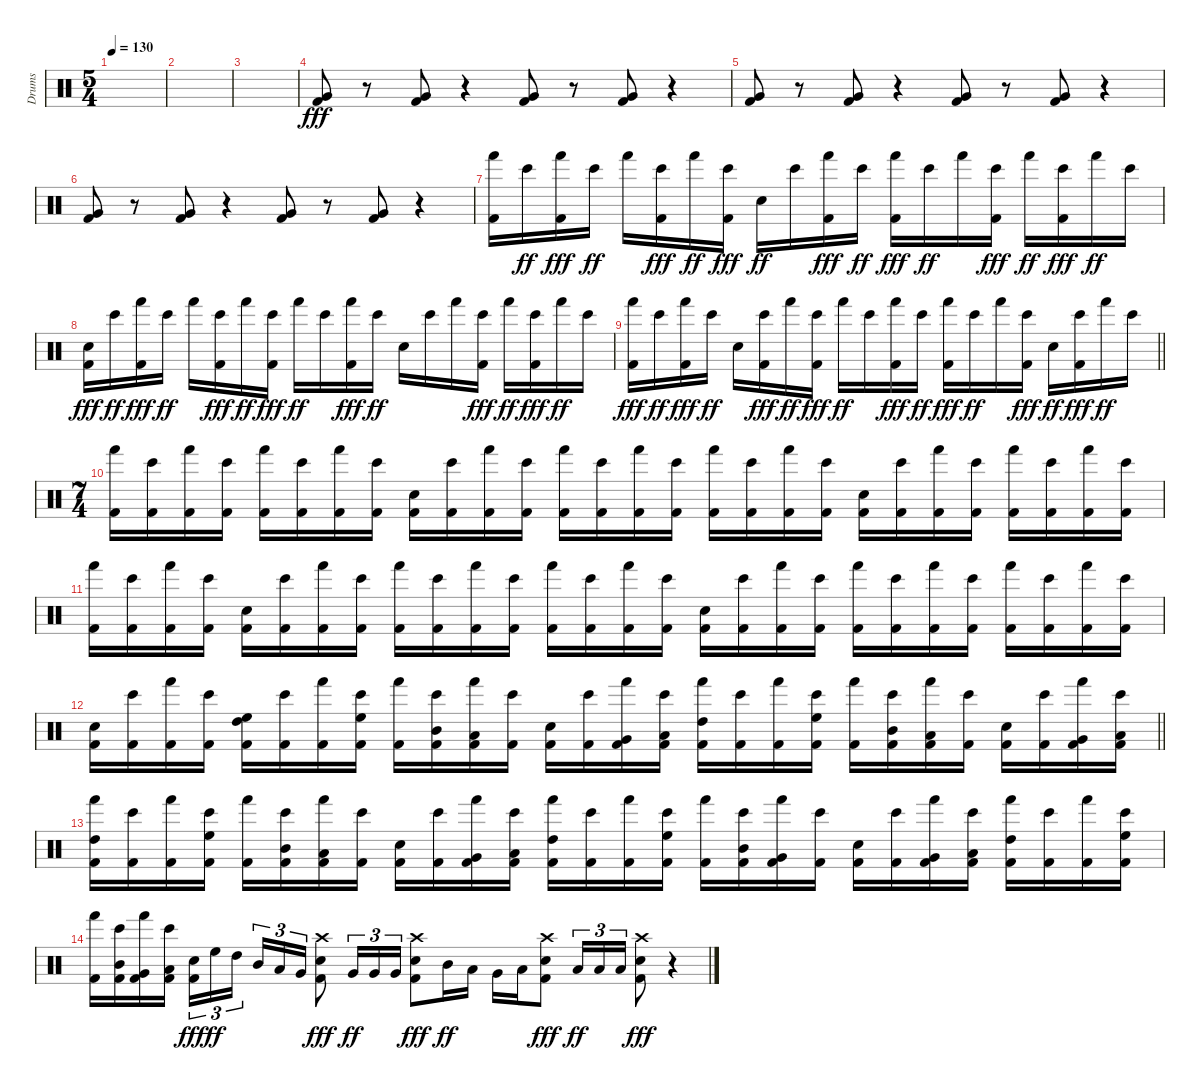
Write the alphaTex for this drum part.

\track ("Drums" "Drums") {instrument percussion}
\staff {score}
\articulation defaults
\ts (5 4)
\tempo 130
\clef neutral
\ks c
|
|
|
("Very Low Tom (hit)" "Kick (hit) 2").8{dy fff} r.8 ("Very Low Tom (hit)" "Kick (hit) 2").8 r.4 ("Very Low Tom (hit)" "Kick (hit) 2").8 r.8 ("Very Low Tom (hit)" "Kick (hit) 2").8 r.4 |
("Very Low Tom (hit)" "Kick (hit) 2").8 r.8 ("Very Low Tom (hit)" "Kick (hit) 2").8 r.4 ("Very Low Tom (hit)" "Kick (hit) 2").8 r.8 ("Very Low Tom (hit)" "Kick (hit) 2").8 r.4 |
("Very Low Tom (hit)" "Kick (hit) 2").8 r.8 ("Very Low Tom (hit)" "Kick (hit) 2").8 r.4 ("Very Low Tom (hit)" "Kick (hit) 2").8 r.8 ("Very Low Tom (hit)" "Kick (hit) 2").8 r.4 |
("Hand (hit)" "Kick (hit) 2").16 "Bongo High (hit)".16{dy ff} ("Hand (hit)" "Kick (hit) 2").16{dy fff} "Bongo High (hit)".16{dy ff} "Hand (hit)".16 ("Bongo High (hit)" "Kick (hit) 2").16{dy fff} "Hand (hit)".16{dy ff} ("Bongo High (hit)" "Kick (hit) 2").16{dy fff} "Snare (hit) 2".16{dy ff} "Bongo High (hit)".16 ("Hand (hit)" "Kick (hit) 2").16{dy fff} "Bongo High (hit)".16{dy ff} ("Hand (hit)" "Kick (hit) 2").16{dy fff} "Bongo High (hit)".16{dy ff} "Hand (hit)".16 ("Bongo High (hit)" "Kick (hit) 2").16{dy fff} "Hand (hit)".16{dy ff} ("Bongo High (hit)" "Kick (hit) 2").16{dy fff} "Hand (hit)".16{dy ff} "Bongo High (hit)".16 |
("Snare (hit) 2" "Kick (hit) 2").16{dy fff} "Bongo High (hit)".16{dy ff} ("Hand (hit)" "Kick (hit) 2").16{dy fff} "Bongo High (hit)".16{dy ff} "Hand (hit)".16 ("Bongo High (hit)" "Kick (hit) 2").16{dy fff} "Hand (hit)".16{dy ff} ("Bongo High (hit)" "Kick (hit) 2").16{dy fff} "Hand (hit)".16{dy ff} "Bongo High (hit)".16 ("Hand (hit)" "Kick (hit) 2").16{dy fff} "Bongo High (hit)".16{dy ff} "Snare (hit) 2".16 "Bongo High (hit)".16 "Hand (hit)".16 ("Bongo High (hit)" "Kick (hit) 2").16{dy fff} "Hand (hit)".16{dy ff} ("Bongo High (hit)" "Kick (hit) 2").16{dy fff} "Hand (hit)".16{dy ff} "Bongo High (hit)".16 |
\barLineRight lightlight
("Hand (hit)" "Kick (hit) 2").16{dy fff} "Bongo High (hit)".16{dy ff} ("Hand (hit)" "Kick (hit) 2").16{dy fff} "Bongo High (hit)".16{dy ff} "Snare (hit) 2".16 ("Bongo High (hit)" "Kick (hit) 2").16{dy fff} "Hand (hit)".16{dy ff} ("Bongo High (hit)" "Kick (hit) 2").16{dy fff} "Hand (hit)".16{dy ff} "Bongo High (hit)".16 ("Hand (hit)" "Kick (hit) 2").16{dy fff} "Bongo High (hit)".16{dy ff} ("Hand (hit)" "Kick (hit) 2").16{dy fff} "Bongo High (hit)".16{dy ff} "Hand (hit)".16 ("Bongo High (hit)" "Kick (hit) 2").16{dy fff} "Snare (hit) 2".16{dy ff} ("Bongo High (hit)" "Kick (hit) 2").16{dy fff} "Hand (hit)".16{dy ff} "Bongo High (hit)".16 |
\ts (7 4)
\section ("" "")
("Hand (hit)" "Kick (hit) 2").16 ("Bongo High (hit)" "Kick (hit) 2").16 ("Hand (hit)" "Kick (hit) 2").16 ("Bongo High (hit)" "Kick (hit) 2").16 ("Hand (hit)" "Kick (hit) 2").16 ("Bongo High (hit)" "Kick (hit) 2").16 ("Hand (hit)" "Kick (hit) 2").16 ("Bongo High (hit)" "Kick (hit) 2").16 ("Snare (hit) 2" "Kick (hit) 2").16 ("Bongo High (hit)" "Kick (hit) 2").16 ("Hand (hit)" "Kick (hit) 2").16 ("Bongo High (hit)" "Kick (hit) 2").16 ("Hand (hit)" "Kick (hit) 2").16 ("Bongo High (hit)" "Kick (hit) 2").16 ("Hand (hit)" "Kick (hit) 2").16 ("Bongo High (hit)" "Kick (hit) 2").16 ("Hand (hit)" "Kick (hit) 2").16 ("Bongo High (hit)" "Kick (hit) 2").16 ("Hand (hit)" "Kick (hit) 2").16 ("Bongo High (hit)" "Kick (hit) 2").16 ("Snare (hit) 2" "Kick (hit) 2").16 ("Bongo High (hit)" "Kick (hit) 2").16 ("Hand (hit)" "Kick (hit) 2").16 ("Bongo High (hit)" "Kick (hit) 2").16 ("Hand (hit)" "Kick (hit) 2").16 ("Bongo High (hit)" "Kick (hit) 2").16 ("Hand (hit)" "Kick (hit) 2").16 ("Bongo High (hit)" "Kick (hit) 2").16 |
("Hand (hit)" "Kick (hit) 2").16 ("Bongo High (hit)" "Kick (hit) 2").16 ("Hand (hit)" "Kick (hit) 2").16 ("Bongo High (hit)" "Kick (hit) 2").16 ("Snare (hit) 2" "Kick (hit) 2").16 ("Bongo High (hit)" "Kick (hit) 2").16 ("Hand (hit)" "Kick (hit) 2").16 ("Bongo High (hit)" "Kick (hit) 2").16 ("Hand (hit)" "Kick (hit) 2").16 ("Bongo High (hit)" "Kick (hit) 2").16 ("Hand (hit)" "Kick (hit) 2").16 ("Bongo High (hit)" "Kick (hit) 2").16 ("Hand (hit)" "Kick (hit) 2").16 ("Bongo High (hit)" "Kick (hit) 2").16 ("Hand (hit)" "Kick (hit) 2").16 ("Bongo High (hit)" "Kick (hit) 2").16 ("Snare (hit) 2" "Kick (hit) 2").16 ("Bongo High (hit)" "Kick (hit) 2").16 ("Hand (hit)" "Kick (hit) 2").16 ("Bongo High (hit)" "Kick (hit) 2").16 ("Hand (hit)" "Kick (hit) 2").16 ("Bongo High (hit)" "Kick (hit) 2").16 ("Hand (hit)" "Kick (hit) 2").16 ("Bongo High (hit)" "Kick (hit) 2").16 ("Hand (hit)" "Kick (hit) 2").16 ("Bongo High (hit)" "Kick (hit) 2").16 ("Hand (hit)" "Kick (hit) 2").16 ("Bongo High (hit)" "Kick (hit) 2").16 |
\barLineRight lightlight
("Snare (hit) 2" "Kick (hit) 2").16 ("Bongo High (hit)" "Kick (hit) 2").16 ("Hand (hit)" "Kick (hit) 2").16 ("Bongo High (hit)" "Kick (hit) 2").16 ("High Floor Tom (hit)" "High Tom (hit)" "Kick (hit) 2").16 ("Bongo High (hit)" "Kick (hit) 2").16 ("Hand (hit)" "Kick (hit) 2").16 ("Bongo High (hit)" "High Floor Tom (hit)" "Kick (hit) 2").16 ("Hand (hit)" "Kick (hit) 2").16 ("Bongo High (hit)" "Mid Tom (hit)" "Kick (hit) 2").16 ("Hand (hit)" "Low Tom (hit)" "Kick (hit) 2").16 ("Bongo High (hit)" "Kick (hit) 2").16 ("Snare (hit) 2" "Kick (hit) 2").16 ("Bongo High (hit)" "Kick (hit) 2").16 ("Hand (hit)" "Very Low Tom (hit)" "Kick (hit) 2").16 ("Bongo High (hit)" "Low Floor Tom (hit)" "Kick (hit) 2").16 ("Hand (hit)" "High Tom (hit)" "Kick (hit) 2").16 ("Bongo High (hit)" "Kick (hit) 2").16 ("Hand (hit)" "Kick (hit) 2").16 ("Bongo High (hit)" "High Floor Tom (hit)" "Kick (hit) 2").16 ("Hand (hit)" "Kick (hit) 2").16 ("Bongo High (hit)" "Mid Tom (hit)" "Kick (hit) 2").16 ("Hand (hit)" "Low Tom (hit)" "Kick (hit) 2").16 ("Bongo High (hit)" "Kick (hit) 2").16 ("Snare (hit) 2" "Kick (hit) 2").16 ("Bongo High (hit)" "Kick (hit) 2").16 ("Hand (hit)" "Very Low Tom (hit)" "Kick (hit) 2").16 ("Bongo High (hit)" "Low Floor Tom (hit)" "Kick (hit) 2").16 |
\section ("" "")
("Hand (hit)" "High Tom (hit)" "Kick (hit) 2").16 ("Bongo High (hit)" "Kick (hit) 2").16 ("Hand (hit)" "Kick (hit) 2").16 ("Bongo High (hit)" "High Floor Tom (hit)" "Kick (hit) 2").16 ("Hand (hit)" "Kick (hit) 2").16 ("Bongo High (hit)" "Mid Tom (hit)" "Kick (hit) 2").16 ("Hand (hit)" "Low Tom (hit)" "Kick (hit) 2").16 ("Bongo High (hit)" "Kick (hit) 2").16 ("Snare (hit) 2" "Kick (hit) 2").16 ("Bongo High (hit)" "Kick (hit) 2").16 ("Hand (hit)" "Very Low Tom (hit)" "Kick (hit) 2").16 ("Bongo High (hit)" "Low Floor Tom (hit)" "Kick (hit) 2").16 ("Hand (hit)" "High Tom (hit)" "Kick (hit) 2").16 ("Bongo High (hit)" "Kick (hit) 2").16 ("Hand (hit)" "Kick (hit) 2").16 ("Bongo High (hit)" "High Floor Tom (hit)" "Kick (hit) 2").16 ("Hand (hit)" "Kick (hit) 2").16 ("Bongo High (hit)" "Mid Tom (hit)" "Kick (hit) 2").16 ("Hand (hit)" "Very Low Tom (hit)" "Kick (hit) 2").16 ("Bongo High (hit)" "Kick (hit) 2").16 ("Snare (hit) 2" "Kick (hit) 2").16 ("Bongo High (hit)" "Kick (hit) 2").16 ("Hand (hit)" "Very Low Tom (hit)" "Kick (hit) 2").16 ("Bongo High (hit)" "Low Floor Tom (hit)" "Kick (hit) 2").16 ("Hand (hit)" "High Tom (hit)" "Kick (hit) 2").16 ("Bongo High (hit)" "Kick (hit) 2").16 ("Hand (hit)" "Kick (hit) 2").16 ("Bongo High (hit)" "High Floor Tom (hit)" "Kick (hit) 2").16 |
("Hand (hit)" "Kick (hit) 2").16 ("Bongo High (hit)" "Mid Tom (hit)" "Kick (hit) 2").16 ("Hand (hit)" "Very Low Tom (hit)" "Kick (hit) 2").16 ("Bongo High (hit)" "Low Floor Tom (hit)" "Kick (hit) 2").16 ("Snare (hit) 2" "Kick (hit) 2").16{tu (3 2) dy fff} "High Floor Tom (hit)".16{tu (3 2) dy ff} "High Tom (hit)".16{tu (3 2) beam splitsecondary} "Mid Tom (hit)".16{tu (3 2)} "Low Tom (hit)".16{tu (3 2)} "Very Low Tom (hit)".16{tu (3 2)} ("Crash high (hit)" "Snare (hit) 2" "Kick (hit) 2").8{dy fff} "Very Low Tom (hit)".16{tu (3 2) dy ff} "Very Low Tom (hit)".16{tu (3 2)} "Very Low Tom (hit)".16{tu (3 2)} ("Crash high (hit)" "Snare (hit) 2" "Kick (hit) 2").8{dy fff} "Mid Tom (hit)".16{dy ff} "Low Tom (hit)".16 "Very Low Tom (hit)".16 "Low Floor Tom (hit)".16 ("Crash high (hit)" "Snare (hit) 2" "Kick (hit) 2").8{dy fff} "Low Tom (hit)".16{tu (3 2) dy ff} "Low Tom (hit)".16{tu (3 2)} "Low Tom (hit)".16{tu (3 2)} ("Crash high (hit)" "Snare (hit) 2" "Kick (hit) 2").8{dy fff} r.4
